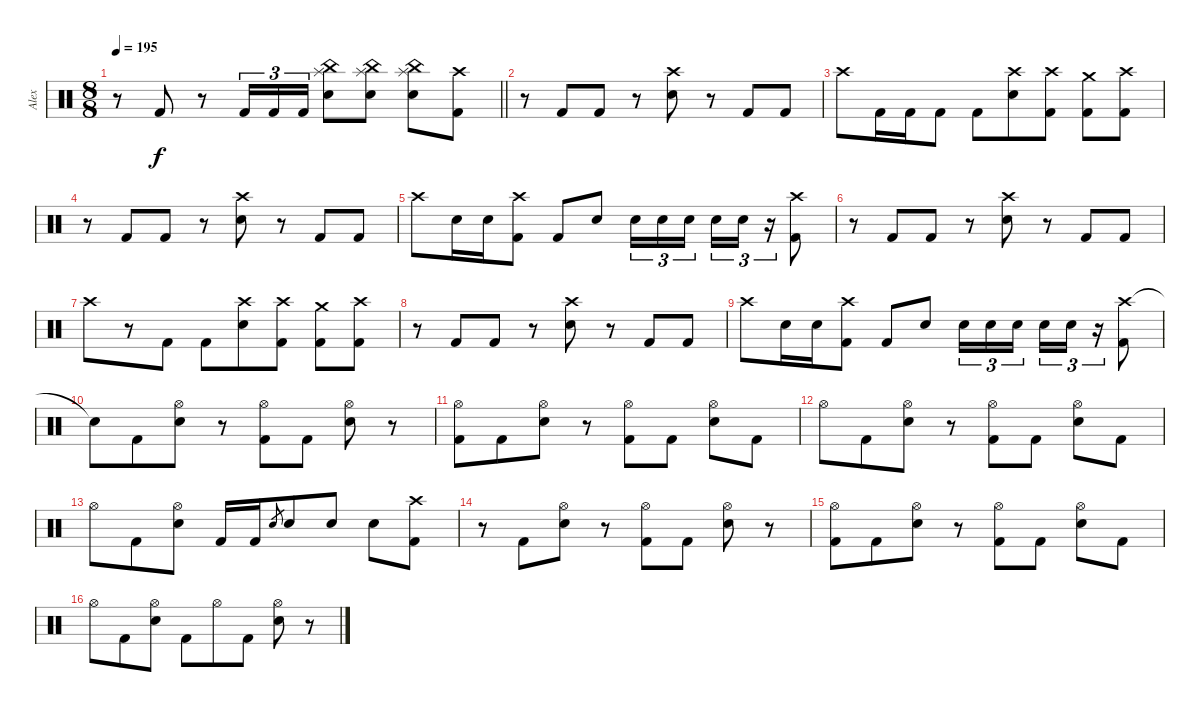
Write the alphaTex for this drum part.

\track ("Alex" "Alex") {instrument percussion}
\staff {score}
\articulation defaults
\ts (8 8)
\tempo 195
\clef neutral
\barLineRight lightlight
\ks c
r.8{dy f} "Kick (hit) 2".8 r.8 "Kick (hit) 2".16{tu (3 2)} "Kick (hit) 2".16{tu (3 2)} "Kick (hit) 2".16{tu (3 2)} ("China (hit)" "Splash (hit)" "Electric Snare (hit)").8 ("China (hit)" "Splash (hit)" "Electric Snare (hit)").8 ("China (hit)" "Splash (hit)" "Electric Snare (hit)").8 ("Crash high (hit)" "Kick (hit) 2").8 |
r.8 "Kick (hit) 2".8 "Kick (hit) 2".8 r.8 ("Crash high (hit)" "Electric Snare (hit)").8 r.8 "Kick (hit) 2".8 "Kick (hit) 2".8 |
"Crash high (hit)".8 "Kick (hit) 2".16 "Kick (hit) 2".16 "Kick (hit) 2".8 "Kick (hit) 2".8 ("Crash high (hit)" "Electric Snare (hit)").8 ("Crash high (hit)" "Kick (hit) 2").8 ("Crash medium (hit)" "Kick (hit) 2").8 ("Crash high (hit)" "Kick (hit) 2").8 |
r.8 "Kick (hit) 2".8 "Kick (hit) 2".8 r.8 ("Crash high (hit)" "Electric Snare (hit)").8 r.8 "Kick (hit) 2".8 "Kick (hit) 2".8 |
"Crash high (hit)".8 "Electric Snare (hit)".16 "Electric Snare (hit)".16 ("Crash high (hit)" "Kick (hit) 2").8 "Kick (hit) 2".8 "Electric Snare (hit)".8 "Electric Snare (hit)".16{tu (3 2)} "Electric Snare (hit)".16{tu (3 2)} "Electric Snare (hit)".16{tu (3 2)} "Electric Snare (hit)".16{tu (3 2)} "Electric Snare (hit)".16{tu (3 2)} r.16{tu (3 2)} ("Crash high (hit)" "Kick (hit) 2").8 |
r.8 "Kick (hit) 2".8 "Kick (hit) 2".8 r.8 ("Crash high (hit)" "Electric Snare (hit)").8 r.8 "Kick (hit) 2".8 "Kick (hit) 2".8 |
"Crash high (hit)".8 r.8 "Kick (hit) 2".8 "Kick (hit) 2".8 ("Crash high (hit)" "Electric Snare (hit)").8 ("Crash high (hit)" "Kick (hit) 2").8 ("Crash medium (hit)" "Kick (hit) 2").8 ("Crash high (hit)" "Kick (hit) 2").8 |
r.8 "Kick (hit) 2".8 "Kick (hit) 2".8 r.8 ("Crash high (hit)" "Electric Snare (hit)").8 r.8 "Kick (hit) 2".8 "Kick (hit) 2".8 |
"Crash high (hit)".8 "Electric Snare (hit)".16 "Electric Snare (hit)".16 ("Crash high (hit)" "Kick (hit) 2").8 "Kick (hit) 2".8 "Electric Snare (hit)".8 "Electric Snare (hit)".16{tu (3 2)} "Electric Snare (hit)".16{tu (3 2)} "Electric Snare (hit)".16{tu (3 2)} "Electric Snare (hit)".16{tu (3 2)} "Electric Snare (hit)".16{tu (3 2)} r.16{tu (3 2)} ("Crash high (hit)" "Kick (hit) 2").8 |
"Snare (hit)"{t}.8 "Kick (hit) 2".8 ("Hi-Hat (open)" "Electric Snare (hit)").8 r.8 ("Hi-Hat (open)" "Kick (hit) 2").8 "Kick (hit) 2".8 ("Hi-Hat (open)" "Electric Snare (hit)").8 r.8 |
("Hi-Hat (open)" "Kick (hit) 2").8 "Kick (hit) 2".8 ("Hi-Hat (open)" "Electric Snare (hit)").8 r.8 ("Hi-Hat (open)" "Kick (hit) 2").8 "Kick (hit) 2".8 ("Hi-Hat (open)" "Electric Snare (hit)").8 "Kick (hit) 2".8 |
"Hi-Hat (open)".8 "Kick (hit) 2".8 ("Hi-Hat (open)" "Electric Snare (hit)").8 r.8 ("Hi-Hat (open)" "Kick (hit) 2").8 "Kick (hit) 2".8 ("Hi-Hat (open)" "Electric Snare (hit)").8 "Kick (hit) 2".8 |
"Hi-Hat (open)".8 "Kick (hit) 2".8 ("Hi-Hat (open)" "Electric Snare (hit)").8 "Kick (hit) 2".16 "Kick (hit) 2".16 "Electric Snare (hit)".8{gr} "Electric Snare (hit)".8 "Electric Snare (hit)".8 "Electric Snare (hit)".8 ("Crash high (hit)" "Kick (hit) 2").8 |
r.8 "Kick (hit) 2".8 ("Hi-Hat (open)" "Electric Snare (hit)").8 r.8 ("Hi-Hat (open)" "Kick (hit) 2").8 "Kick (hit) 2".8 ("Hi-Hat (open)" "Electric Snare (hit)").8 r.8 |
("Hi-Hat (open)" "Kick (hit) 2").8 "Kick (hit) 2".8 ("Hi-Hat (open)" "Electric Snare (hit)").8 r.8 ("Hi-Hat (open)" "Kick (hit) 2").8 "Kick (hit) 2".8 ("Hi-Hat (open)" "Electric Snare (hit)").8 "Kick (hit) 2".8 |
"Hi-Hat (open)".8 "Kick (hit) 2".8 ("Hi-Hat (open)" "Electric Snare (hit)").8 "Kick (hit) 2".8 "Hi-Hat (open)".8 "Kick (hit) 2".8 ("Hi-Hat (open)" "Electric Snare (hit)").8 r.8
